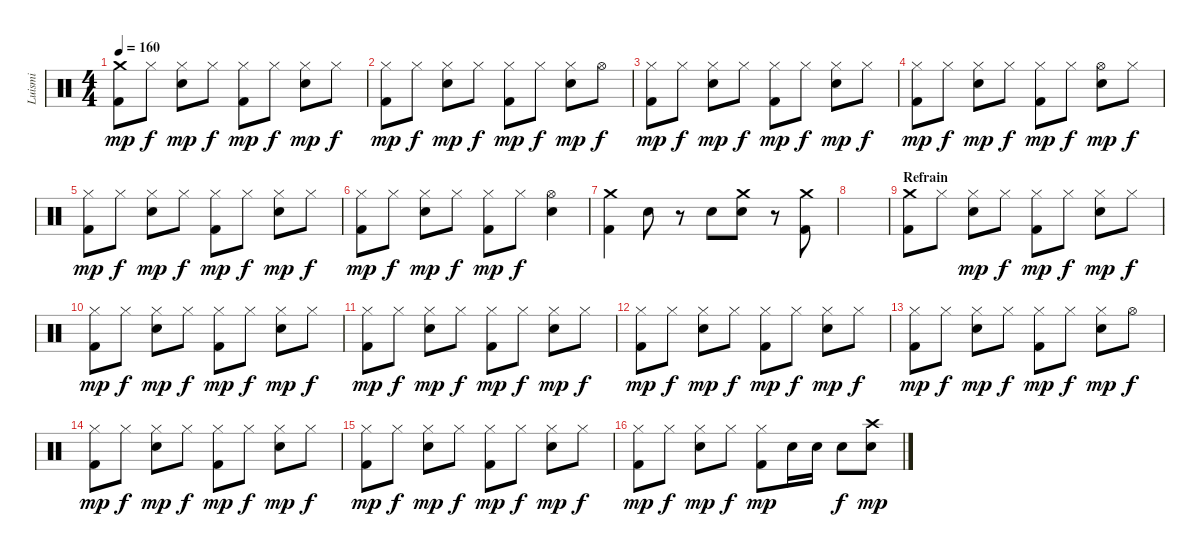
\track ("Luismi" "Luismi") {instrument percussion}
\staff {score}
\articulation defaults
\ts (4 4)
\tempo 160
\clef neutral
\ks c
("Crash medium (hit)" "Kick (hit) 2").8{dy mp} "Hi-Hat (closed)".8{dy f} ("Hi-Hat (closed)" "Snare (hit) 2").8{dy mp} "Hi-Hat (closed)".8{dy f} ("Hi-Hat (closed)" "Kick (hit) 2").8{dy mp} "Hi-Hat (closed)".8{dy f} ("Hi-Hat (closed)" "Snare (hit) 2").8{dy mp} "Hi-Hat (closed)".8{dy f} |
("Hi-Hat (closed)" "Kick (hit) 2").8{dy mp} "Hi-Hat (closed)".8{dy f} ("Hi-Hat (closed)" "Snare (hit) 2").8{dy mp} "Hi-Hat (closed)".8{dy f} ("Hi-Hat (closed)" "Kick (hit) 2").8{dy mp} "Hi-Hat (closed)".8{dy f} ("Hi-Hat (closed)" "Snare (hit) 2").8{dy mp} "Hi-Hat (open)".8{dy f} |
("Hi-Hat (closed)" "Kick (hit) 2").8{dy mp} "Hi-Hat (closed)".8{dy f} ("Hi-Hat (closed)" "Snare (hit) 2").8{dy mp} "Hi-Hat (closed)".8{dy f} ("Hi-Hat (closed)" "Kick (hit) 2").8{dy mp} "Hi-Hat (closed)".8{dy f} ("Hi-Hat (closed)" "Snare (hit) 2").8{dy mp} "Hi-Hat (closed)".8{dy f} |
("Hi-Hat (closed)" "Kick (hit) 2").8{dy mp} "Hi-Hat (closed)".8{dy f} ("Hi-Hat (closed)" "Snare (hit) 2").8{dy mp} "Hi-Hat (closed)".8{dy f} ("Hi-Hat (closed)" "Kick (hit) 2").8{dy mp} "Hi-Hat (closed)".8{dy f} ("Hi-Hat (open)" "Snare (hit) 2").8{dy mp} "Hi-Hat (closed)".8{dy f} |
("Hi-Hat (closed)" "Kick (hit) 2").8{dy mp} "Hi-Hat (closed)".8{dy f} ("Hi-Hat (closed)" "Snare (hit) 2").8{dy mp} "Hi-Hat (closed)".8{dy f} ("Hi-Hat (closed)" "Kick (hit) 2").8{dy mp} "Hi-Hat (closed)".8{dy f} ("Hi-Hat (closed)" "Snare (hit) 2").8{dy mp} "Hi-Hat (closed)".8{dy f} |
("Hi-Hat (closed)" "Kick (hit) 2").8{dy mp} "Hi-Hat (closed)".8{dy f} ("Hi-Hat (closed)" "Snare (hit) 2").8{dy mp} "Hi-Hat (closed)".8{dy f} ("Hi-Hat (closed)" "Kick (hit) 2").8{dy mp} "Hi-Hat (closed)".8{dy f} ("Hi-Hat (open)" "Snare (hit) 2").4 |
("Crash medium (hit)" "Kick (hit) 2").4 "Snare (hit) 2".8 r.8 "Snare (hit) 2".8 ("Crash medium (hit)" "Snare (hit) 2").8 r.8 ("Crash medium (hit)" "Kick (hit) 2").8 |
|
\section ("" "Refrain")
("Crash medium (hit)" "Kick (hit) 2").8 "Hi-Hat (closed)".8 ("Hi-Hat (closed)" "Snare (hit) 2").8{dy mp} "Hi-Hat (closed)".8{dy f} ("Hi-Hat (closed)" "Kick (hit) 2").8{dy mp} "Hi-Hat (closed)".8{dy f} ("Hi-Hat (closed)" "Snare (hit) 2").8{dy mp} "Hi-Hat (closed)".8{dy f} |
("Hi-Hat (closed)" "Kick (hit) 2").8{dy mp} "Hi-Hat (closed)".8{dy f} ("Hi-Hat (closed)" "Snare (hit) 2").8{dy mp} "Hi-Hat (closed)".8{dy f} ("Hi-Hat (closed)" "Kick (hit) 2").8{dy mp} "Hi-Hat (closed)".8{dy f} ("Hi-Hat (closed)" "Snare (hit) 2").8{dy mp} "Hi-Hat (closed)".8{dy f} |
("Hi-Hat (closed)" "Kick (hit) 2").8{dy mp} "Hi-Hat (closed)".8{dy f} ("Hi-Hat (closed)" "Snare (hit) 2").8{dy mp} "Hi-Hat (closed)".8{dy f} ("Hi-Hat (closed)" "Kick (hit) 2").8{dy mp} "Hi-Hat (closed)".8{dy f} ("Hi-Hat (closed)" "Snare (hit) 2").8{dy mp} "Hi-Hat (closed)".8{dy f} |
("Hi-Hat (closed)" "Kick (hit) 2").8{dy mp} "Hi-Hat (closed)".8{dy f} ("Hi-Hat (closed)" "Snare (hit) 2").8{dy mp} "Hi-Hat (closed)".8{dy f} ("Hi-Hat (closed)" "Kick (hit) 2").8{dy mp} "Hi-Hat (closed)".8{dy f} ("Hi-Hat (closed)" "Snare (hit) 2").8{dy mp} "Hi-Hat (closed)".8{dy f} |
("Hi-Hat (closed)" "Kick (hit) 2").8{dy mp} "Hi-Hat (closed)".8{dy f} ("Hi-Hat (closed)" "Snare (hit) 2").8{dy mp} "Hi-Hat (closed)".8{dy f} ("Hi-Hat (closed)" "Kick (hit) 2").8{dy mp} "Hi-Hat (closed)".8{dy f} ("Hi-Hat (closed)" "Snare (hit) 2").8{dy mp} "Hi-Hat (open)".8{dy f} |
("Hi-Hat (closed)" "Kick (hit) 2").8{dy mp} "Hi-Hat (closed)".8{dy f} ("Hi-Hat (closed)" "Snare (hit) 2").8{dy mp} "Hi-Hat (closed)".8{dy f} ("Hi-Hat (closed)" "Kick (hit) 2").8{dy mp} "Hi-Hat (closed)".8{dy f} ("Hi-Hat (closed)" "Snare (hit) 2").8{dy mp} "Hi-Hat (closed)".8{dy f} |
("Hi-Hat (closed)" "Kick (hit) 2").8{dy mp} "Hi-Hat (closed)".8{dy f} ("Hi-Hat (closed)" "Snare (hit) 2").8{dy mp} "Hi-Hat (closed)".8{dy f} ("Hi-Hat (closed)" "Kick (hit) 2").8{dy mp} "Hi-Hat (closed)".8{dy f} ("Hi-Hat (closed)" "Snare (hit) 2").8{dy mp} "Hi-Hat (closed)".8{dy f} |
("Hi-Hat (closed)" "Kick (hit) 2").8{dy mp} "Hi-Hat (closed)".8{dy f} ("Hi-Hat (closed)" "Snare (hit) 2").8{dy mp} "Hi-Hat (closed)".8{dy f} ("Hi-Hat (closed)" "Kick (hit) 2").8{dy mp} "Snare (hit) 2".16 "Snare (hit) 2".16 "Snare (hit) 2".8{dy f} ("Crash high (hit)" "Snare (hit) 2").8{dy mp}
